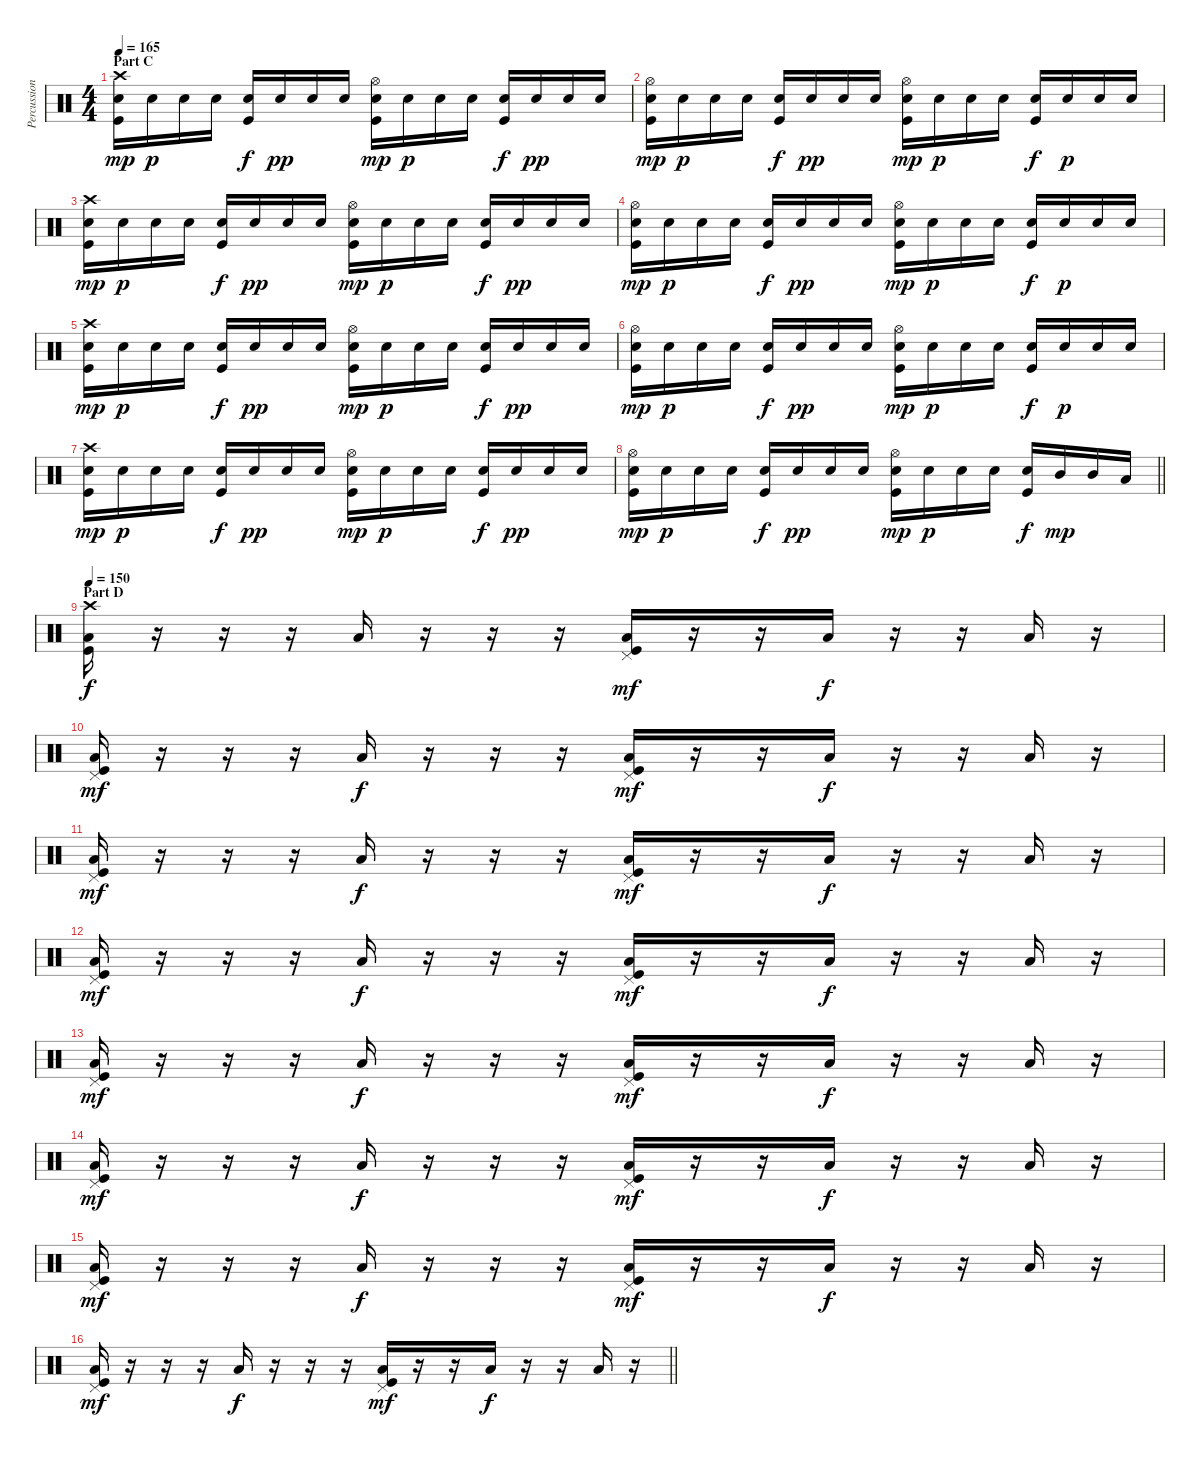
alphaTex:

\track ("Percussion" "Percussion") {instrument percussion}
\staff {score}
\articulation defaults
\ts (4 4)
\section ("" "Part C")
\tempo 165
\clef neutral
\ks c
("Crash high (hit)" "Electric Snare (hit)" "Kick (hit)").16{dy mp} "Electric Snare (hit)".16{dy p} "Electric Snare (hit)".16 "Electric Snare (hit)".16 ("Electric Snare (hit)" "Kick (hit)").16{dy f} "Electric Snare (hit)".16{dy pp} "Electric Snare (hit)".16 "Electric Snare (hit)".16 ("Hi-Hat (open)" "Electric Snare (hit)" "Kick (hit)").16{dy mp} "Electric Snare (hit)".16{dy p} "Electric Snare (hit)".16 "Electric Snare (hit)".16 ("Electric Snare (hit)" "Kick (hit)").16{dy f} "Electric Snare (hit)".16{dy pp} "Electric Snare (hit)".16 "Electric Snare (hit)".16 |
("Hi-Hat (open)" "Electric Snare (hit)" "Kick (hit)").16{dy mp} "Electric Snare (hit)".16{dy p} "Electric Snare (hit)".16 "Electric Snare (hit)".16 ("Electric Snare (hit)" "Kick (hit)").16{dy f} "Electric Snare (hit)".16{dy pp} "Electric Snare (hit)".16 "Electric Snare (hit)".16 ("Hi-Hat (open)" "Electric Snare (hit)" "Kick (hit)").16{dy mp} "Electric Snare (hit)".16{dy p} "Electric Snare (hit)".16 "Electric Snare (hit)".16 ("Electric Snare (hit)" "Kick (hit)").16{dy f} "Electric Snare (hit)".16{dy p} "Electric Snare (hit)".16 "Electric Snare (hit)".16 |
("Crash high (hit)" "Electric Snare (hit)" "Kick (hit)").16{dy mp} "Electric Snare (hit)".16{dy p} "Electric Snare (hit)".16 "Electric Snare (hit)".16 ("Electric Snare (hit)" "Kick (hit)").16{dy f} "Electric Snare (hit)".16{dy pp} "Electric Snare (hit)".16 "Electric Snare (hit)".16 ("Hi-Hat (open)" "Electric Snare (hit)" "Kick (hit)").16{dy mp} "Electric Snare (hit)".16{dy p} "Electric Snare (hit)".16 "Electric Snare (hit)".16 ("Electric Snare (hit)" "Kick (hit)").16{dy f} "Electric Snare (hit)".16{dy pp} "Electric Snare (hit)".16 "Electric Snare (hit)".16 |
("Hi-Hat (open)" "Electric Snare (hit)" "Kick (hit)").16{dy mp} "Electric Snare (hit)".16{dy p} "Electric Snare (hit)".16 "Electric Snare (hit)".16 ("Electric Snare (hit)" "Kick (hit)").16{dy f} "Electric Snare (hit)".16{dy pp} "Electric Snare (hit)".16 "Electric Snare (hit)".16 ("Hi-Hat (open)" "Electric Snare (hit)" "Kick (hit)").16{dy mp} "Electric Snare (hit)".16{dy p} "Electric Snare (hit)".16 "Electric Snare (hit)".16 ("Electric Snare (hit)" "Kick (hit)").16{dy f} "Electric Snare (hit)".16{dy p} "Electric Snare (hit)".16 "Electric Snare (hit)".16 |
("Crash high (hit)" "Electric Snare (hit)" "Kick (hit)").16{dy mp} "Electric Snare (hit)".16{dy p} "Electric Snare (hit)".16 "Electric Snare (hit)".16 ("Electric Snare (hit)" "Kick (hit)").16{dy f} "Electric Snare (hit)".16{dy pp} "Electric Snare (hit)".16 "Electric Snare (hit)".16 ("Hi-Hat (open)" "Electric Snare (hit)" "Kick (hit)").16{dy mp} "Electric Snare (hit)".16{dy p} "Electric Snare (hit)".16 "Electric Snare (hit)".16 ("Electric Snare (hit)" "Kick (hit)").16{dy f} "Electric Snare (hit)".16{dy pp} "Electric Snare (hit)".16 "Electric Snare (hit)".16 |
("Hi-Hat (open)" "Electric Snare (hit)" "Kick (hit)").16{dy mp} "Electric Snare (hit)".16{dy p} "Electric Snare (hit)".16 "Electric Snare (hit)".16 ("Electric Snare (hit)" "Kick (hit)").16{dy f} "Electric Snare (hit)".16{dy pp} "Electric Snare (hit)".16 "Electric Snare (hit)".16 ("Hi-Hat (open)" "Electric Snare (hit)" "Kick (hit)").16{dy mp} "Electric Snare (hit)".16{dy p} "Electric Snare (hit)".16 "Electric Snare (hit)".16 ("Electric Snare (hit)" "Kick (hit)").16{dy f} "Electric Snare (hit)".16{dy p} "Electric Snare (hit)".16 "Electric Snare (hit)".16 |
("Crash high (hit)" "Electric Snare (hit)" "Kick (hit)").16{dy mp} "Electric Snare (hit)".16{dy p} "Electric Snare (hit)".16 "Electric Snare (hit)".16 ("Electric Snare (hit)" "Kick (hit)").16{dy f} "Electric Snare (hit)".16{dy pp} "Electric Snare (hit)".16 "Electric Snare (hit)".16 ("Hi-Hat (open)" "Electric Snare (hit)" "Kick (hit)").16{dy mp} "Electric Snare (hit)".16{dy p} "Electric Snare (hit)".16 "Electric Snare (hit)".16 ("Electric Snare (hit)" "Kick (hit)").16{dy f} "Electric Snare (hit)".16{dy pp} "Electric Snare (hit)".16 "Electric Snare (hit)".16 |
\barLineRight lightlight
("Hi-Hat (open)" "Electric Snare (hit)" "Kick (hit)").16{dy mp} "Electric Snare (hit)".16{dy p} "Electric Snare (hit)".16 "Electric Snare (hit)".16 ("Electric Snare (hit)" "Kick (hit)").16{dy f} "Electric Snare (hit)".16{dy pp} "Electric Snare (hit)".16 "Electric Snare (hit)".16 ("Hi-Hat (open)" "Electric Snare (hit)" "Kick (hit)").16{dy mp} "Electric Snare (hit)".16{dy p} "Electric Snare (hit)".16 "Electric Snare (hit)".16 ("Electric Snare (hit)" "Kick (hit)").16{dy f} "Mid Tom (hit)".16{dy mp} "Mid Tom (hit)".16 "Low Tom (hit)".16 |
\section ("" "Part D")
\tempo 150
("Crash high (hit)" "Low Floor Tom (hit)" "Kick (hit)").16{dy f} r.16 r.16 r.16 "Low Floor Tom (hit)".16 r.16 r.16 r.16 ("Pedal Hi-Hat (hit)" "Low Floor Tom (hit)" "Kick (hit)").16{dy mf} r.16 r.16 "Low Floor Tom (hit)".16{dy f} r.16 r.16 "Low Floor Tom (hit)".16 r.16 |
("Pedal Hi-Hat (hit)" "Low Floor Tom (hit)" "Kick (hit)").16{dy mf} r.16 r.16 r.16 "Low Floor Tom (hit)".16{dy f} r.16 r.16 r.16 ("Pedal Hi-Hat (hit)" "Low Floor Tom (hit)" "Kick (hit)").16{dy mf} r.16 r.16 "Low Floor Tom (hit)".16{dy f} r.16 r.16 "Low Floor Tom (hit)".16 r.16 |
("Pedal Hi-Hat (hit)" "Low Floor Tom (hit)" "Kick (hit)").16{dy mf} r.16 r.16 r.16 "Low Floor Tom (hit)".16{dy f} r.16 r.16 r.16 ("Pedal Hi-Hat (hit)" "Low Floor Tom (hit)" "Kick (hit)").16{dy mf} r.16 r.16 "Low Floor Tom (hit)".16{dy f} r.16 r.16 "Low Floor Tom (hit)".16 r.16 |
("Pedal Hi-Hat (hit)" "Low Floor Tom (hit)" "Kick (hit)").16{dy mf} r.16 r.16 r.16 "Low Floor Tom (hit)".16{dy f} r.16 r.16 r.16 ("Pedal Hi-Hat (hit)" "Low Floor Tom (hit)" "Kick (hit)").16{dy mf} r.16 r.16 "Low Floor Tom (hit)".16{dy f} r.16 r.16 "Low Floor Tom (hit)".16 r.16 |
("Pedal Hi-Hat (hit)" "Low Floor Tom (hit)" "Kick (hit)").16{dy mf} r.16 r.16 r.16 "Low Floor Tom (hit)".16{dy f} r.16 r.16 r.16 ("Pedal Hi-Hat (hit)" "Low Floor Tom (hit)" "Kick (hit)").16{dy mf} r.16 r.16 "Low Floor Tom (hit)".16{dy f} r.16 r.16 "Low Floor Tom (hit)".16 r.16 |
("Pedal Hi-Hat (hit)" "Low Floor Tom (hit)" "Kick (hit)").16{dy mf} r.16 r.16 r.16 "Low Floor Tom (hit)".16{dy f} r.16 r.16 r.16 ("Pedal Hi-Hat (hit)" "Low Floor Tom (hit)" "Kick (hit)").16{dy mf} r.16 r.16 "Low Floor Tom (hit)".16{dy f} r.16 r.16 "Low Floor Tom (hit)".16 r.16 |
("Pedal Hi-Hat (hit)" "Low Floor Tom (hit)" "Kick (hit)").16{dy mf} r.16 r.16 r.16 "Low Floor Tom (hit)".16{dy f} r.16 r.16 r.16 ("Pedal Hi-Hat (hit)" "Low Floor Tom (hit)" "Kick (hit)").16{dy mf} r.16 r.16 "Low Floor Tom (hit)".16{dy f} r.16 r.16 "Low Floor Tom (hit)".16 r.16 |
\barLineRight lightlight
("Pedal Hi-Hat (hit)" "Low Floor Tom (hit)" "Kick (hit)").16{dy mf} r.16 r.16 r.16 "Low Floor Tom (hit)".16{dy f} r.16 r.16 r.16 ("Pedal Hi-Hat (hit)" "Low Floor Tom (hit)" "Kick (hit)").16{dy mf} r.16 r.16 "Low Floor Tom (hit)".16{dy f} r.16 r.16 "Low Floor Tom (hit)".16 r.16
